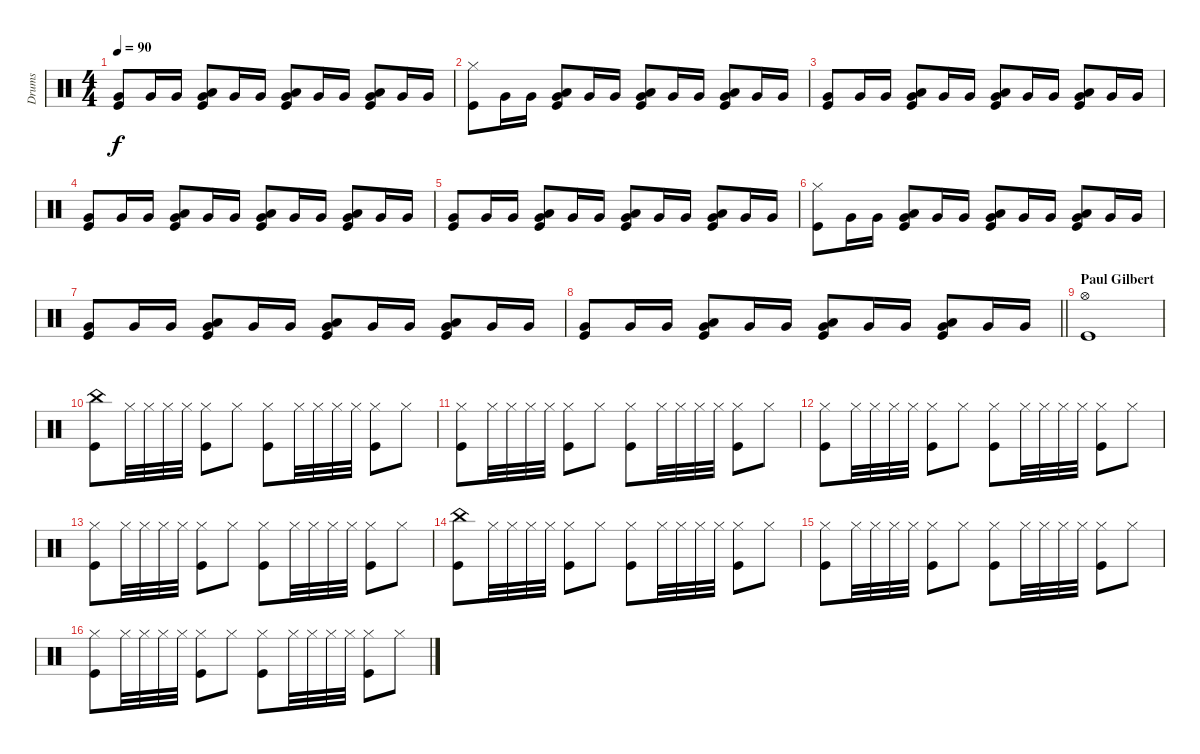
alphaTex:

\track ("Drums" "Drums") {instrument percussion}
\staff {score}
\articulation defaults
\ts (4 4)
\tempo 90
\clef neutral
\ks c
("Very Low Tom (hit)" "Kick (hit)").8{dy f} "Very Low Tom (hit)".16 "Very Low Tom (hit)".16 ("Low Tom (hit)" "Very Low Tom (hit)" "Kick (hit)").8 "Very Low Tom (hit)".16 "Very Low Tom (hit)".16 ("Low Tom (hit)" "Very Low Tom (hit)" "Kick (hit)").8 "Very Low Tom (hit)".16 "Very Low Tom (hit)".16 ("Low Tom (hit)" "Very Low Tom (hit)" "Kick (hit)").8 "Very Low Tom (hit)".16 "Very Low Tom (hit)".16 |
("Hi-Hat (closed)" "Kick (hit)").8 "Very Low Tom (hit)".16 "Very Low Tom (hit)".16 ("Low Tom (hit)" "Very Low Tom (hit)" "Kick (hit)").8 "Very Low Tom (hit)".16 "Very Low Tom (hit)".16 ("Low Tom (hit)" "Very Low Tom (hit)" "Kick (hit)").8 "Very Low Tom (hit)".16 "Very Low Tom (hit)".16 ("Low Tom (hit)" "Very Low Tom (hit)" "Kick (hit)").8 "Very Low Tom (hit)".16 "Very Low Tom (hit)".16 |
("Very Low Tom (hit)" "Kick (hit)").8 "Very Low Tom (hit)".16 "Very Low Tom (hit)".16 ("Low Tom (hit)" "Very Low Tom (hit)" "Kick (hit)").8 "Very Low Tom (hit)".16 "Very Low Tom (hit)".16 ("Low Tom (hit)" "Very Low Tom (hit)" "Kick (hit)").8 "Very Low Tom (hit)".16 "Very Low Tom (hit)".16 ("Low Tom (hit)" "Very Low Tom (hit)" "Kick (hit)").8 "Very Low Tom (hit)".16 "Very Low Tom (hit)".16 |
("Very Low Tom (hit)" "Kick (hit)").8 "Very Low Tom (hit)".16 "Very Low Tom (hit)".16 ("Low Tom (hit)" "Very Low Tom (hit)" "Kick (hit)").8 "Very Low Tom (hit)".16 "Very Low Tom (hit)".16 ("Low Tom (hit)" "Very Low Tom (hit)" "Kick (hit)").8 "Very Low Tom (hit)".16 "Very Low Tom (hit)".16 ("Low Tom (hit)" "Very Low Tom (hit)" "Kick (hit)").8 "Very Low Tom (hit)".16 "Very Low Tom (hit)".16 |
("Very Low Tom (hit)" "Kick (hit)").8 "Very Low Tom (hit)".16 "Very Low Tom (hit)".16 ("Low Tom (hit)" "Very Low Tom (hit)" "Kick (hit)").8 "Very Low Tom (hit)".16 "Very Low Tom (hit)".16 ("Low Tom (hit)" "Very Low Tom (hit)" "Kick (hit)").8 "Very Low Tom (hit)".16 "Very Low Tom (hit)".16 ("Low Tom (hit)" "Very Low Tom (hit)" "Kick (hit)").8 "Very Low Tom (hit)".16 "Very Low Tom (hit)".16 |
("Hi-Hat (closed)" "Kick (hit)").8 "Very Low Tom (hit)".16 "Very Low Tom (hit)".16 ("Low Tom (hit)" "Very Low Tom (hit)" "Kick (hit)").8 "Very Low Tom (hit)".16 "Very Low Tom (hit)".16 ("Low Tom (hit)" "Very Low Tom (hit)" "Kick (hit)").8 "Very Low Tom (hit)".16 "Very Low Tom (hit)".16 ("Low Tom (hit)" "Very Low Tom (hit)" "Kick (hit)").8 "Very Low Tom (hit)".16 "Very Low Tom (hit)".16 |
("Very Low Tom (hit)" "Kick (hit)").8 "Very Low Tom (hit)".16 "Very Low Tom (hit)".16 ("Low Tom (hit)" "Very Low Tom (hit)" "Kick (hit)").8 "Very Low Tom (hit)".16 "Very Low Tom (hit)".16 ("Low Tom (hit)" "Very Low Tom (hit)" "Kick (hit)").8 "Very Low Tom (hit)".16 "Very Low Tom (hit)".16 ("Low Tom (hit)" "Very Low Tom (hit)" "Kick (hit)").8 "Very Low Tom (hit)".16 "Very Low Tom (hit)".16 |
\barLineRight lightlight
("Very Low Tom (hit)" "Kick (hit)").8 "Very Low Tom (hit)".16 "Very Low Tom (hit)".16 ("Low Tom (hit)" "Very Low Tom (hit)" "Kick (hit)").8 "Very Low Tom (hit)".16 "Very Low Tom (hit)".16 ("Low Tom (hit)" "Very Low Tom (hit)" "Kick (hit)").8 "Very Low Tom (hit)".16 "Very Low Tom (hit)".16 ("Low Tom (hit)" "Very Low Tom (hit)" "Kick (hit)").8 "Very Low Tom (hit)".16 "Very Low Tom (hit)".16 |
\section ("" "Paul Gilbert")
("Hi-Hat (open)" "Kick (hit)").1 |
("China (hit)" "Kick (hit)").8 "Hi-Hat (closed)".32 "Hi-Hat (closed)".32 "Hi-Hat (closed)".32 "Hi-Hat (closed)".32 ("Hi-Hat (closed)" "Kick (hit)").8 "Hi-Hat (closed)".8 ("Hi-Hat (closed)" "Kick (hit)").8 "Hi-Hat (closed)".32 "Hi-Hat (closed)".32 "Hi-Hat (closed)".32 "Hi-Hat (closed)".32 ("Hi-Hat (closed)" "Kick (hit)").8 "Hi-Hat (closed)".8 |
("Hi-Hat (closed)" "Kick (hit)").8 "Hi-Hat (closed)".32 "Hi-Hat (closed)".32 "Hi-Hat (closed)".32 "Hi-Hat (closed)".32 ("Hi-Hat (closed)" "Kick (hit)").8 "Hi-Hat (closed)".8 ("Hi-Hat (closed)" "Kick (hit)").8 "Hi-Hat (closed)".32 "Hi-Hat (closed)".32 "Hi-Hat (closed)".32 "Hi-Hat (closed)".32 ("Hi-Hat (closed)" "Kick (hit)").8 "Hi-Hat (closed)".8 |
("Hi-Hat (closed)" "Kick (hit)").8 "Hi-Hat (closed)".32 "Hi-Hat (closed)".32 "Hi-Hat (closed)".32 "Hi-Hat (closed)".32 ("Hi-Hat (closed)" "Kick (hit)").8 "Hi-Hat (closed)".8 ("Hi-Hat (closed)" "Kick (hit)").8 "Hi-Hat (closed)".32 "Hi-Hat (closed)".32 "Hi-Hat (closed)".32 "Hi-Hat (closed)".32 ("Hi-Hat (closed)" "Kick (hit)").8 "Hi-Hat (closed)".8 |
("Hi-Hat (closed)" "Kick (hit)").8 "Hi-Hat (closed)".32 "Hi-Hat (closed)".32 "Hi-Hat (closed)".32 "Hi-Hat (closed)".32 ("Hi-Hat (closed)" "Kick (hit)").8 "Hi-Hat (closed)".8 ("Hi-Hat (closed)" "Kick (hit)").8 "Hi-Hat (closed)".32 "Hi-Hat (closed)".32 "Hi-Hat (closed)".32 "Hi-Hat (closed)".32 ("Hi-Hat (closed)" "Kick (hit)").8 "Hi-Hat (closed)".8 |
("China (hit)" "Kick (hit)").8 "Hi-Hat (closed)".32 "Hi-Hat (closed)".32 "Hi-Hat (closed)".32 "Hi-Hat (closed)".32 ("Hi-Hat (closed)" "Kick (hit)").8 "Hi-Hat (closed)".8 ("Hi-Hat (closed)" "Kick (hit)").8 "Hi-Hat (closed)".32 "Hi-Hat (closed)".32 "Hi-Hat (closed)".32 "Hi-Hat (closed)".32 ("Hi-Hat (closed)" "Kick (hit)").8 "Hi-Hat (closed)".8 |
("Hi-Hat (closed)" "Kick (hit)").8 "Hi-Hat (closed)".32 "Hi-Hat (closed)".32 "Hi-Hat (closed)".32 "Hi-Hat (closed)".32 ("Hi-Hat (closed)" "Kick (hit)").8 "Hi-Hat (closed)".8 ("Hi-Hat (closed)" "Kick (hit)").8 "Hi-Hat (closed)".32 "Hi-Hat (closed)".32 "Hi-Hat (closed)".32 "Hi-Hat (closed)".32 ("Hi-Hat (closed)" "Kick (hit)").8 "Hi-Hat (closed)".8 |
("Hi-Hat (closed)" "Kick (hit)").8 "Hi-Hat (closed)".32 "Hi-Hat (closed)".32 "Hi-Hat (closed)".32 "Hi-Hat (closed)".32 ("Hi-Hat (closed)" "Kick (hit)").8 "Hi-Hat (closed)".8 ("Hi-Hat (closed)" "Kick (hit)").8 "Hi-Hat (closed)".32 "Hi-Hat (closed)".32 "Hi-Hat (closed)".32 "Hi-Hat (closed)".32 ("Hi-Hat (closed)" "Kick (hit)").8 "Hi-Hat (closed)".8
